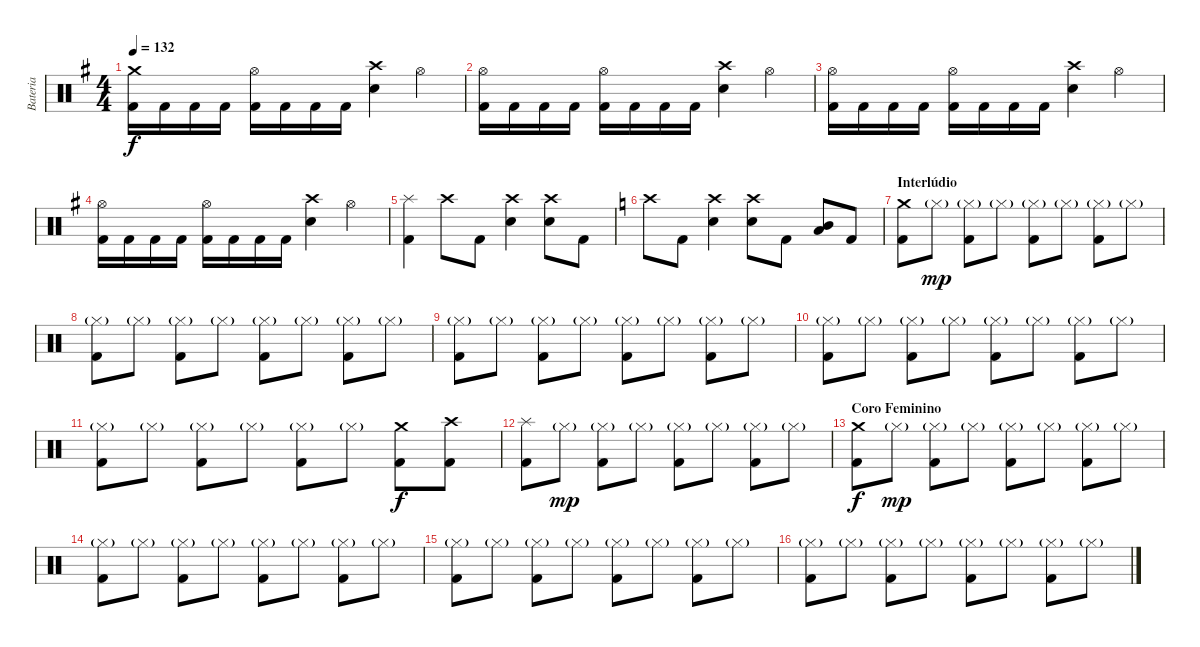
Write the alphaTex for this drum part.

\track ("Bateria" "Bateria") {instrument percussion}
\staff {score}
\articulation defaults
\ts (4 4)
\tempo 132
\clef neutral
\ks g
("Crash medium (hit)" "Kick (hit) 2").16{dy f} "Kick (hit) 2".16 "Kick (hit) 2".16 "Kick (hit) 2".16 ("Hi-Hat (open)" "Kick (hit) 2").16 "Kick (hit) 2".16 "Kick (hit) 2".16 "Kick (hit) 2".16 ("Crash high (hit)" "Electric Snare (hit)").4 "Hi-Hat (open)".4 |
("Hi-Hat (open)" "Kick (hit) 2").16 "Kick (hit) 2".16 "Kick (hit) 2".16 "Kick (hit) 2".16 ("Hi-Hat (open)" "Kick (hit) 2").16 "Kick (hit) 2".16 "Kick (hit) 2".16 "Kick (hit) 2".16 ("Crash high (hit)" "Electric Snare (hit)").4 "Hi-Hat (open)".4 |
("Hi-Hat (open)" "Kick (hit) 2").16 "Kick (hit) 2".16 "Kick (hit) 2".16 "Kick (hit) 2".16 ("Hi-Hat (open)" "Kick (hit) 2").16 "Kick (hit) 2".16 "Kick (hit) 2".16 "Kick (hit) 2".16 ("Crash high (hit)" "Electric Snare (hit)").4 "Hi-Hat (open)".4 |
("Hi-Hat (open)" "Kick (hit) 2").16 "Kick (hit) 2".16 "Kick (hit) 2".16 "Kick (hit) 2".16 ("Hi-Hat (open)" "Kick (hit) 2").16 "Kick (hit) 2".16 "Kick (hit) 2".16 "Kick (hit) 2".16 ("Crash high (hit)" "Electric Snare (hit)").4 "Hi-Hat (open)".4 |
("Splash (hit)" "Kick (hit) 2").4 "Crash high (hit)".8 "Kick (hit) 2".8 ("Crash high (hit)" "Electric Snare (hit)").4 ("Crash high (hit)" "Electric Snare (hit)").8 "Kick (hit) 2".8 |
\ks aminor "Crash high (hit)".8 "Kick (hit) 2".8
("Crash high (hit)" "Electric Snare (hit)").4 ("Crash high (hit)" "Electric Snare (hit)").8 "Kick (hit) 2".8 ("Mid Tom (hit)" "Low Tom (hit)").8 "Kick (hit) 2".8 |
\section ("" "Interlúdio")
("Crash medium (hit)" "Kick (hit) 2").8 "Hi-Hat (closed)"{g}.8{dy mp} ("Hi-Hat (closed)"{g} "Kick (hit) 2").8 "Hi-Hat (closed)"{g}.8 ("Hi-Hat (closed)"{g} "Kick (hit) 2").8 "Hi-Hat (closed)"{g}.8 ("Hi-Hat (closed)"{g} "Kick (hit) 2").8 "Hi-Hat (closed)"{g}.8 |
("Hi-Hat (closed)"{g} "Kick (hit) 2").8 "Hi-Hat (closed)"{g}.8 ("Hi-Hat (closed)"{g} "Kick (hit) 2").8 "Hi-Hat (closed)"{g}.8 ("Hi-Hat (closed)"{g} "Kick (hit) 2").8 "Hi-Hat (closed)"{g}.8 ("Hi-Hat (closed)"{g} "Kick (hit) 2").8 "Hi-Hat (closed)"{g}.8 |
("Hi-Hat (closed)"{g} "Kick (hit) 2").8 "Hi-Hat (closed)"{g}.8 ("Hi-Hat (closed)"{g} "Kick (hit) 2").8 "Hi-Hat (closed)"{g}.8 ("Hi-Hat (closed)"{g} "Kick (hit) 2").8 "Hi-Hat (closed)"{g}.8 ("Hi-Hat (closed)"{g} "Kick (hit) 2").8 "Hi-Hat (closed)"{g}.8 |
("Hi-Hat (closed)"{g} "Kick (hit) 2").8 "Hi-Hat (closed)"{g}.8 ("Hi-Hat (closed)"{g} "Kick (hit) 2").8 "Hi-Hat (closed)"{g}.8 ("Hi-Hat (closed)"{g} "Kick (hit) 2").8 "Hi-Hat (closed)"{g}.8 ("Hi-Hat (closed)"{g} "Kick (hit) 2").8 "Hi-Hat (closed)"{g}.8 |
("Hi-Hat (closed)"{g} "Kick (hit) 2").8 "Hi-Hat (closed)"{g}.8 ("Hi-Hat (closed)"{g} "Kick (hit) 2").8 "Hi-Hat (closed)"{g}.8 ("Hi-Hat (closed)"{g} "Kick (hit) 2").8 "Hi-Hat (closed)"{g}.8 ("Crash medium (hit)" "Kick (hit) 2").8{dy f} ("Crash high (hit)" "Kick (hit) 2").8 |
("Splash (hit)" "Kick (hit) 2").8 "Hi-Hat (closed)"{g}.8{dy mp} ("Hi-Hat (closed)"{g} "Kick (hit) 2").8 "Hi-Hat (closed)"{g}.8 ("Hi-Hat (closed)"{g} "Kick (hit) 2").8 "Hi-Hat (closed)"{g}.8 ("Hi-Hat (closed)"{g} "Kick (hit) 2").8 "Hi-Hat (closed)"{g}.8 |
\section ("" "Coro Feminino")
("Crash medium (hit)" "Kick (hit) 2").8{dy f} "Hi-Hat (closed)"{g}.8{dy mp} ("Hi-Hat (closed)"{g} "Kick (hit) 2").8 "Hi-Hat (closed)"{g}.8 ("Hi-Hat (closed)"{g} "Kick (hit) 2").8 "Hi-Hat (closed)"{g}.8 ("Hi-Hat (closed)"{g} "Kick (hit) 2").8 "Hi-Hat (closed)"{g}.8 |
("Hi-Hat (closed)"{g} "Kick (hit) 2").8 "Hi-Hat (closed)"{g}.8 ("Hi-Hat (closed)"{g} "Kick (hit) 2").8 "Hi-Hat (closed)"{g}.8 ("Hi-Hat (closed)"{g} "Kick (hit) 2").8 "Hi-Hat (closed)"{g}.8 ("Hi-Hat (closed)"{g} "Kick (hit) 2").8 "Hi-Hat (closed)"{g}.8 |
("Hi-Hat (closed)"{g} "Kick (hit) 2").8 "Hi-Hat (closed)"{g}.8 ("Hi-Hat (closed)"{g} "Kick (hit) 2").8 "Hi-Hat (closed)"{g}.8 ("Hi-Hat (closed)"{g} "Kick (hit) 2").8 "Hi-Hat (closed)"{g}.8 ("Hi-Hat (closed)"{g} "Kick (hit) 2").8 "Hi-Hat (closed)"{g}.8 |
("Hi-Hat (closed)"{g} "Kick (hit) 2").8 "Hi-Hat (closed)"{g}.8 ("Hi-Hat (closed)"{g} "Kick (hit) 2").8 "Hi-Hat (closed)"{g}.8 ("Hi-Hat (closed)"{g} "Kick (hit) 2").8 "Hi-Hat (closed)"{g}.8 ("Hi-Hat (closed)"{g} "Kick (hit) 2").8 "Hi-Hat (closed)"{g}.8
